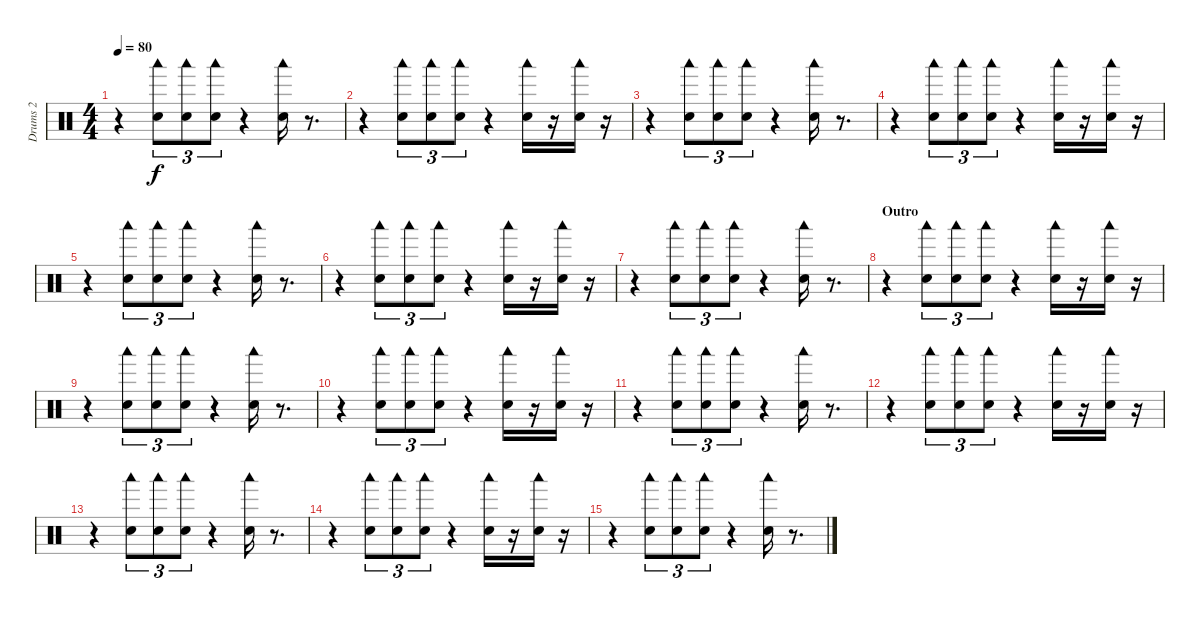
\track ("Drums 2" "Drums 2") {instrument percussion}
\staff {score}
\articulation defaults
\ts (4 4)
\tempo 80
\clef neutral
\ks c
r.4{dy f} ("Woodblock low (hit)" "Electric Snare (hit)").8{tu (3 2)} ("Woodblock low (hit)" "Electric Snare (hit)").8{tu (3 2)} ("Woodblock low (hit)" "Electric Snare (hit)").8{tu (3 2)} r.4 ("Woodblock low (hit)" "Electric Snare (hit)").16 r.8{d} |
r.4 ("Woodblock low (hit)" "Electric Snare (hit)").8{tu (3 2)} ("Woodblock low (hit)" "Electric Snare (hit)").8{tu (3 2)} ("Woodblock low (hit)" "Electric Snare (hit)").8{tu (3 2)} r.4 ("Woodblock low (hit)" "Electric Snare (hit)").16 r.16 ("Woodblock low (hit)" "Electric Snare (hit)").16 r.16 |
r.4 ("Woodblock low (hit)" "Electric Snare (hit)").8{tu (3 2)} ("Woodblock low (hit)" "Electric Snare (hit)").8{tu (3 2)} ("Woodblock low (hit)" "Electric Snare (hit)").8{tu (3 2)} r.4 ("Woodblock low (hit)" "Electric Snare (hit)").16 r.8{d} |
r.4 ("Woodblock low (hit)" "Electric Snare (hit)").8{tu (3 2)} ("Woodblock low (hit)" "Electric Snare (hit)").8{tu (3 2)} ("Woodblock low (hit)" "Electric Snare (hit)").8{tu (3 2)} r.4 ("Woodblock low (hit)" "Electric Snare (hit)").16 r.16 ("Woodblock low (hit)" "Electric Snare (hit)").16 r.16 |
r.4 ("Woodblock low (hit)" "Electric Snare (hit)").8{tu (3 2)} ("Woodblock low (hit)" "Electric Snare (hit)").8{tu (3 2)} ("Woodblock low (hit)" "Electric Snare (hit)").8{tu (3 2)} r.4 ("Woodblock low (hit)" "Electric Snare (hit)").16 r.8{d} |
r.4 ("Woodblock low (hit)" "Electric Snare (hit)").8{tu (3 2)} ("Woodblock low (hit)" "Electric Snare (hit)").8{tu (3 2)} ("Woodblock low (hit)" "Electric Snare (hit)").8{tu (3 2)} r.4 ("Woodblock low (hit)" "Electric Snare (hit)").16 r.16 ("Woodblock low (hit)" "Electric Snare (hit)").16 r.16 |
r.4 ("Woodblock low (hit)" "Electric Snare (hit)").8{tu (3 2)} ("Woodblock low (hit)" "Electric Snare (hit)").8{tu (3 2)} ("Woodblock low (hit)" "Electric Snare (hit)").8{tu (3 2)} r.4 ("Woodblock low (hit)" "Electric Snare (hit)").16 r.8{d} |
\section ("" "Outro")
r.4 ("Woodblock low (hit)" "Electric Snare (hit)").8{tu (3 2)} ("Woodblock low (hit)" "Electric Snare (hit)").8{tu (3 2)} ("Woodblock low (hit)" "Electric Snare (hit)").8{tu (3 2)} r.4 ("Woodblock low (hit)" "Electric Snare (hit)").16 r.16 ("Woodblock low (hit)" "Electric Snare (hit)").16 r.16 |
r.4 ("Woodblock low (hit)" "Electric Snare (hit)").8{tu (3 2)} ("Woodblock low (hit)" "Electric Snare (hit)").8{tu (3 2)} ("Woodblock low (hit)" "Electric Snare (hit)").8{tu (3 2)} r.4 ("Woodblock low (hit)" "Electric Snare (hit)").16 r.8{d} |
r.4 ("Woodblock low (hit)" "Electric Snare (hit)").8{tu (3 2)} ("Woodblock low (hit)" "Electric Snare (hit)").8{tu (3 2)} ("Woodblock low (hit)" "Electric Snare (hit)").8{tu (3 2)} r.4 ("Woodblock low (hit)" "Electric Snare (hit)").16 r.16 ("Woodblock low (hit)" "Electric Snare (hit)").16 r.16 |
r.4 ("Woodblock low (hit)" "Electric Snare (hit)").8{tu (3 2)} ("Woodblock low (hit)" "Electric Snare (hit)").8{tu (3 2)} ("Woodblock low (hit)" "Electric Snare (hit)").8{tu (3 2)} r.4 ("Woodblock low (hit)" "Electric Snare (hit)").16 r.8{d} |
r.4{volume 8} ("Woodblock low (hit)" "Electric Snare (hit)").8{tu (3 2)} ("Woodblock low (hit)" "Electric Snare (hit)").8{tu (3 2)} ("Woodblock low (hit)" "Electric Snare (hit)").8{tu (3 2)} r.4 ("Woodblock low (hit)" "Electric Snare (hit)").16 r.16 ("Woodblock low (hit)" "Electric Snare (hit)").16 r.16 |
r.4 ("Woodblock low (hit)" "Electric Snare (hit)").8{tu (3 2)} ("Woodblock low (hit)" "Electric Snare (hit)").8{tu (3 2)} ("Woodblock low (hit)" "Electric Snare (hit)").8{tu (3 2)} r.4 ("Woodblock low (hit)" "Electric Snare (hit)").16 r.8{d} |
r.4{volume 0} ("Woodblock low (hit)" "Electric Snare (hit)").8{tu (3 2)} ("Woodblock low (hit)" "Electric Snare (hit)").8{tu (3 2)} ("Woodblock low (hit)" "Electric Snare (hit)").8{tu (3 2)} r.4 ("Woodblock low (hit)" "Electric Snare (hit)").16 r.16 ("Woodblock low (hit)" "Electric Snare (hit)").16 r.16 |
r.4 ("Woodblock low (hit)" "Electric Snare (hit)").8{tu (3 2)} ("Woodblock low (hit)" "Electric Snare (hit)").8{tu (3 2)} ("Woodblock low (hit)" "Electric Snare (hit)").8{tu (3 2)} r.4 ("Woodblock low (hit)" "Electric Snare (hit)").16 r.8{d}
